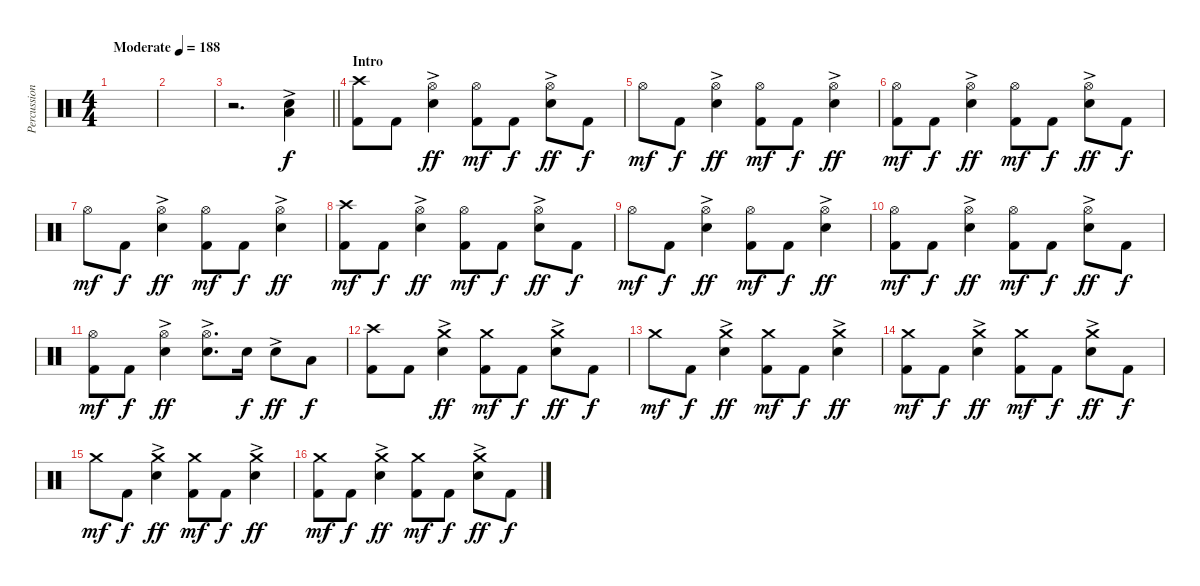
\track ("Percussion" "Percussion") {instrument percussion}
\staff {score}
\articulation defaults
\ts (4 4)
\tempo (188 "Moderate")
\clef neutral
\ks c
|
|
\barLineRight lightlight
r.2{d} ("Low Tom (hit)" "Electric Snare (hit)"{ac}).4{bu 120} |
\section ("" "Intro")
("Crash high (hit)" "Kick (hit) 2").8{dy f} "Kick (hit) 2".8 ("Hi-Hat (open)" "Electric Snare (hit)"{ac}).4{dy ff} ("Hi-Hat (open)" "Kick (hit) 2").8{dy mf} "Kick (hit) 2".8{dy f} ("Hi-Hat (open)" "Electric Snare (hit)"{ac}).8{dy ff} "Kick (hit) 2".8{dy f} |
"Hi-Hat (open)".8{dy mf} "Kick (hit) 2".8{dy f} ("Hi-Hat (open)" "Electric Snare (hit)"{ac}).4{dy ff} ("Hi-Hat (open)" "Kick (hit) 2").8{dy mf} "Kick (hit) 2".8{dy f} ("Hi-Hat (open)" "Electric Snare (hit)"{ac}).4{dy ff} |
("Hi-Hat (open)" "Kick (hit) 2").8{dy mf} "Kick (hit) 2".8{dy f} ("Hi-Hat (open)" "Electric Snare (hit)"{ac}).4{dy ff} ("Hi-Hat (open)" "Kick (hit) 2").8{dy mf} "Kick (hit) 2".8{dy f} ("Hi-Hat (open)" "Electric Snare (hit)"{ac}).8{dy ff} "Kick (hit) 2".8{dy f} |
"Hi-Hat (open)".8{dy mf} "Kick (hit) 2".8{dy f} ("Hi-Hat (open)" "Electric Snare (hit)"{ac}).4{dy ff} ("Hi-Hat (open)" "Kick (hit) 2").8{dy mf} "Kick (hit) 2".8{dy f} ("Hi-Hat (open)" "Electric Snare (hit)"{ac}).4{dy ff} |
("Crash high (hit)" "Kick (hit) 2").8{dy mf} "Kick (hit) 2".8{dy f} ("Hi-Hat (open)" "Electric Snare (hit)"{ac}).4{dy ff} ("Hi-Hat (open)" "Kick (hit) 2").8{dy mf} "Kick (hit) 2".8{dy f} ("Hi-Hat (open)" "Electric Snare (hit)"{ac}).8{dy ff} "Kick (hit) 2".8{dy f} |
"Hi-Hat (open)".8{dy mf} "Kick (hit) 2".8{dy f} ("Hi-Hat (open)" "Electric Snare (hit)"{ac}).4{dy ff} ("Hi-Hat (open)" "Kick (hit) 2").8{dy mf} "Kick (hit) 2".8{dy f} ("Hi-Hat (open)" "Electric Snare (hit)"{ac}).4{dy ff} |
("Hi-Hat (open)" "Kick (hit) 2").8{dy mf} "Kick (hit) 2".8{dy f} ("Hi-Hat (open)" "Electric Snare (hit)"{ac}).4{dy ff} ("Hi-Hat (open)" "Kick (hit) 2").8{dy mf} "Kick (hit) 2".8{dy f} ("Hi-Hat (open)" "Electric Snare (hit)"{ac}).8{dy ff} "Kick (hit) 2".8{dy f} |
("Hi-Hat (open)" "Kick (hit) 2").8{dy mf} "Kick (hit) 2".8{dy f} ("Hi-Hat (open)" "Electric Snare (hit)"{ac}).4{dy ff} ("Hi-Hat (open)" "Electric Snare (hit)"{ac}).8{d} "Electric Snare (hit)".16{dy f} "Electric Snare (hit)"{ac}.8{dy ff} "Low Tom (hit)".8{dy f} |
("Crash high (hit)" "Kick (hit) 2").8 "Kick (hit) 2".8 ("Crash medium (hit)" "Electric Snare (hit)"{ac}).4{dy ff} ("Crash medium (hit)" "Kick (hit) 2").8{dy mf} "Kick (hit) 2".8{dy f} ("Crash medium (hit)" "Electric Snare (hit)"{ac}).8{dy ff} "Kick (hit) 2".8{dy f} |
"Crash medium (hit)".8{dy mf} "Kick (hit) 2".8{dy f} ("Crash medium (hit)" "Electric Snare (hit)"{ac}).4{dy ff} ("Crash medium (hit)" "Kick (hit) 2").8{dy mf} "Kick (hit) 2".8{dy f} ("Crash medium (hit)" "Electric Snare (hit)"{ac}).4{dy ff} |
("Crash medium (hit)" "Kick (hit) 2").8{dy mf} "Kick (hit) 2".8{dy f} ("Crash medium (hit)" "Electric Snare (hit)"{ac}).4{dy ff} ("Crash medium (hit)" "Kick (hit) 2").8{dy mf} "Kick (hit) 2".8{dy f} ("Crash medium (hit)" "Electric Snare (hit)"{ac}).8{dy ff} "Kick (hit) 2".8{dy f} |
"Crash medium (hit)".8{dy mf} "Kick (hit) 2".8{dy f} ("Crash medium (hit)" "Electric Snare (hit)"{ac}).4{dy ff} ("Crash medium (hit)" "Kick (hit) 2").8{dy mf} "Kick (hit) 2".8{dy f} ("Crash medium (hit)" "Electric Snare (hit)"{ac}).4{dy ff} |
("Crash medium (hit)" "Kick (hit) 2").8{dy mf} "Kick (hit) 2".8{dy f} ("Crash medium (hit)" "Electric Snare (hit)"{ac}).4{dy ff} ("Crash medium (hit)" "Kick (hit) 2").8{dy mf} "Kick (hit) 2".8{dy f} ("Crash medium (hit)" "Electric Snare (hit)"{ac}).8{dy ff} "Kick (hit) 2".8{dy f}
